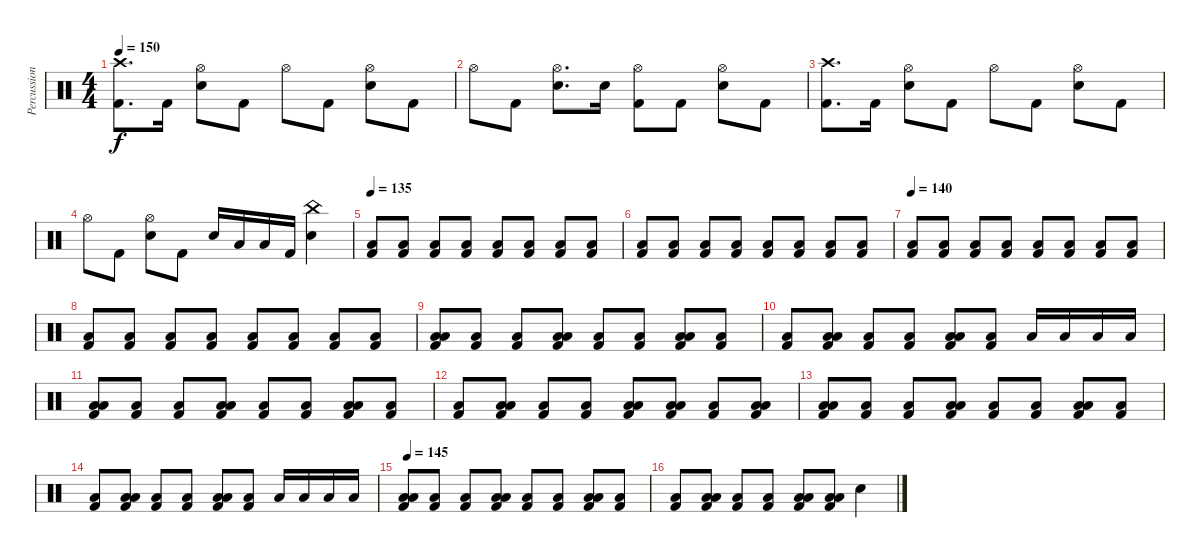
\track ("Percussion" "Percussion") {instrument percussion}
\staff {score}
\articulation defaults
\ts (4 4)
\tempo 150
\clef neutral
\ks c
("Crash high (hit)" "Kick (hit) 2").8{d dy f} "Kick (hit) 2".16 ("Hi-Hat (open)" "Electric Snare (hit)").8 "Kick (hit) 2".8 "Hi-Hat (open)".8 "Kick (hit) 2".8 ("Hi-Hat (open)" "Electric Snare (hit)").8 "Kick (hit) 2".8 |
"Hi-Hat (open)".8 "Kick (hit) 2".8 ("Hi-Hat (open)" "Electric Snare (hit)").8{d} "Electric Snare (hit)".16 ("Hi-Hat (open)" "Kick (hit) 2").8 "Kick (hit) 2".8 ("Hi-Hat (open)" "Electric Snare (hit)").8 "Kick (hit) 2".8 |
("Crash high (hit)" "Kick (hit) 2").8{d} "Kick (hit) 2".16 ("Hi-Hat (open)" "Electric Snare (hit)").8 "Kick (hit) 2".8 "Hi-Hat (open)".8 "Kick (hit) 2".8 ("Hi-Hat (open)" "Electric Snare (hit)").8 "Kick (hit) 2".8 |
"Hi-Hat (open)".8 "Kick (hit) 2".8 ("Hi-Hat (open)" "Electric Snare (hit)").8 "Kick (hit) 2".8 "Electric Snare (hit)".16 "Low Tom (hit)".16 "Low Floor Tom (hit)".16 "Kick (hit) 2".16 ("China (hit)" "Electric Snare (hit)").4 |
\tempo 135
("Low Floor Tom (hit)" "Kick (hit) 2").8 ("Low Floor Tom (hit)" "Kick (hit) 2").8 ("Low Floor Tom (hit)" "Kick (hit) 2").8 ("Low Floor Tom (hit)" "Kick (hit) 2").8 ("Low Floor Tom (hit)" "Kick (hit) 2").8 ("Low Floor Tom (hit)" "Kick (hit) 2").8 ("Low Floor Tom (hit)" "Kick (hit) 2").8 ("Low Floor Tom (hit)" "Kick (hit) 2").8 |
("Low Floor Tom (hit)" "Kick (hit) 2").8 ("Low Floor Tom (hit)" "Kick (hit) 2").8 ("Low Floor Tom (hit)" "Kick (hit) 2").8 ("Low Floor Tom (hit)" "Kick (hit) 2").8 ("Low Floor Tom (hit)" "Kick (hit) 2").8 ("Low Floor Tom (hit)" "Kick (hit) 2").8 ("Low Floor Tom (hit)" "Kick (hit) 2").8 ("Low Floor Tom (hit)" "Kick (hit) 2").8 |
\tempo 140
("Low Floor Tom (hit)" "Kick (hit) 2").8 ("Low Floor Tom (hit)" "Kick (hit) 2").8 ("Low Floor Tom (hit)" "Kick (hit) 2").8 ("Low Floor Tom (hit)" "Kick (hit) 2").8 ("Low Floor Tom (hit)" "Kick (hit) 2").8 ("Low Floor Tom (hit)" "Kick (hit) 2").8 ("Low Floor Tom (hit)" "Kick (hit) 2").8 ("Low Floor Tom (hit)" "Kick (hit) 2").8 |
("Low Floor Tom (hit)" "Kick (hit) 2").8 ("Low Floor Tom (hit)" "Kick (hit) 2").8 ("Low Floor Tom (hit)" "Kick (hit) 2").8 ("Low Floor Tom (hit)" "Kick (hit) 2").8 ("Low Floor Tom (hit)" "Kick (hit) 2").8 ("Low Floor Tom (hit)" "Kick (hit) 2").8 ("Low Floor Tom (hit)" "Kick (hit) 2").8 ("Low Floor Tom (hit)" "Kick (hit) 2").8 |
("Low Tom (hit)" "Low Floor Tom (hit)" "Kick (hit) 2").8 ("Low Floor Tom (hit)" "Kick (hit) 2").8 ("Low Floor Tom (hit)" "Kick (hit) 2").8 ("Low Tom (hit)" "Low Floor Tom (hit)" "Kick (hit) 2").8 ("Low Floor Tom (hit)" "Kick (hit) 2").8 ("Low Floor Tom (hit)" "Kick (hit) 2").8 ("Low Tom (hit)" "Low Floor Tom (hit)" "Kick (hit) 2").8 ("Low Floor Tom (hit)" "Kick (hit) 2").8 |
("Low Floor Tom (hit)" "Kick (hit) 2").8 ("Low Tom (hit)" "Low Floor Tom (hit)" "Kick (hit) 2").8 ("Low Floor Tom (hit)" "Kick (hit) 2").8 ("Low Floor Tom (hit)" "Kick (hit) 2").8 ("Low Tom (hit)" "Low Floor Tom (hit)" "Kick (hit) 2").8 ("Low Floor Tom (hit)" "Kick (hit) 2").8 "Low Tom (hit)".16 "Low Tom (hit)".16 "Low Floor Tom (hit)".16 "Low Floor Tom (hit)".16 |
("Low Tom (hit)" "Low Floor Tom (hit)" "Kick (hit) 2").8 ("Low Floor Tom (hit)" "Kick (hit) 2").8 ("Low Floor Tom (hit)" "Kick (hit) 2").8 ("Low Tom (hit)" "Low Floor Tom (hit)" "Kick (hit) 2").8 ("Low Floor Tom (hit)" "Kick (hit) 2").8 ("Low Floor Tom (hit)" "Kick (hit) 2").8 ("Low Tom (hit)" "Low Floor Tom (hit)" "Kick (hit) 2").8 ("Low Floor Tom (hit)" "Kick (hit) 2").8 |
("Low Floor Tom (hit)" "Kick (hit) 2").8 ("Low Tom (hit)" "Low Floor Tom (hit)" "Kick (hit) 2").8 ("Low Floor Tom (hit)" "Kick (hit) 2").8 ("Low Floor Tom (hit)" "Kick (hit) 2").8 ("Low Tom (hit)" "Low Floor Tom (hit)" "Kick (hit) 2").8 ("Low Tom (hit)" "Low Floor Tom (hit)" "Kick (hit) 2").8 ("Low Floor Tom (hit)" "Kick (hit) 2").8 ("Low Tom (hit)" "Low Floor Tom (hit)" "Kick (hit) 2").8 |
("Low Tom (hit)" "Low Floor Tom (hit)" "Kick (hit) 2").8 ("Low Floor Tom (hit)" "Kick (hit) 2").8 ("Low Floor Tom (hit)" "Kick (hit) 2").8 ("Low Tom (hit)" "Low Floor Tom (hit)" "Kick (hit) 2").8 ("Low Floor Tom (hit)" "Kick (hit) 2").8 ("Low Floor Tom (hit)" "Kick (hit) 2").8 ("Low Tom (hit)" "Low Floor Tom (hit)" "Kick (hit) 2").8 ("Low Floor Tom (hit)" "Kick (hit) 2").8 |
("Low Floor Tom (hit)" "Kick (hit) 2").8 ("Low Tom (hit)" "Low Floor Tom (hit)" "Kick (hit) 2").8 ("Low Floor Tom (hit)" "Kick (hit) 2").8 ("Low Floor Tom (hit)" "Kick (hit) 2").8 ("Low Tom (hit)" "Low Floor Tom (hit)" "Kick (hit) 2").8 ("Low Floor Tom (hit)" "Kick (hit) 2").8 "Low Tom (hit)".16 "Low Tom (hit)".16 "Low Floor Tom (hit)".16 "Low Floor Tom (hit)".16 |
\tempo 145
("Low Tom (hit)" "Low Floor Tom (hit)" "Kick (hit) 2").8 ("Low Floor Tom (hit)" "Kick (hit) 2").8 ("Low Floor Tom (hit)" "Kick (hit) 2").8 ("Low Tom (hit)" "Low Floor Tom (hit)" "Kick (hit) 2").8 ("Low Floor Tom (hit)" "Kick (hit) 2").8 ("Low Floor Tom (hit)" "Kick (hit) 2").8 ("Low Tom (hit)" "Low Floor Tom (hit)" "Kick (hit) 2").8 ("Low Floor Tom (hit)" "Kick (hit) 2").8 |
("Low Floor Tom (hit)" "Kick (hit) 2").8 ("Low Tom (hit)" "Low Floor Tom (hit)" "Kick (hit) 2").8 ("Low Floor Tom (hit)" "Kick (hit) 2").8 ("Low Floor Tom (hit)" "Kick (hit) 2").8 ("Low Tom (hit)" "Low Floor Tom (hit)" "Kick (hit) 2").8 ("Low Tom (hit)" "Low Floor Tom (hit)" "Kick (hit) 2").8 "Electric Snare (hit)".4
